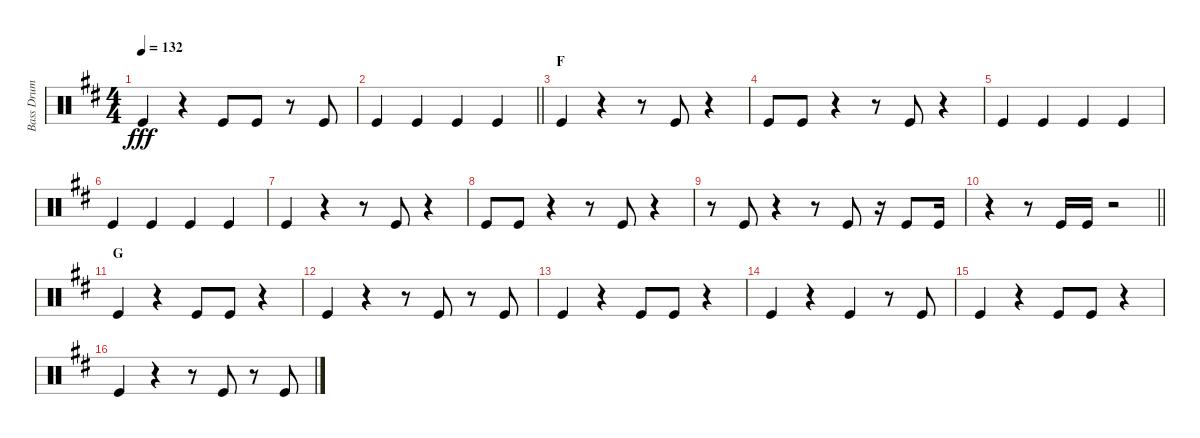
\track ("Bass Drum" "Bass Drum") {instrument percussion}
\staff {score}
\articulation defaults
\ts (4 4)
\tempo 132
\clef neutral
\ks d "Kick (hit)".4{dy fff}
r.4 "Kick (hit)".8 "Kick (hit)".8 r.8 "Kick (hit)".8 |
\barLineRight lightlight "Kick (hit)".4 "Kick (hit)".4 "Kick (hit)".4 "Kick (hit)".4
|
\section ("" "F")
"Kick (hit)".4 r.4 r.8 "Kick (hit)".8 r.4 |
"Kick (hit)".8 "Kick (hit)".8 r.4 r.8 "Kick (hit)".8 r.4 |
"Kick (hit)".4 "Kick (hit)".4 "Kick (hit)".4 "Kick (hit)".4 |
"Kick (hit)".4 "Kick (hit)".4 "Kick (hit)".4 "Kick (hit)".4 |
"Kick (hit)".4 r.4 r.8 "Kick (hit)".8 r.4 |
"Kick (hit)".8 "Kick (hit)".8 r.4 r.8 "Kick (hit)".8 r.4 |
r.8 "Kick (hit)".8 r.4 r.8 "Kick (hit)".8 r.16 "Kick (hit)".8 "Kick (hit)".16 |
\barLineRight lightlight
r.4 r.8 "Kick (hit)".16 "Kick (hit)".16 r.2 |
\section ("" "G")
"Kick (hit)".4 r.4 "Kick (hit)".8 "Kick (hit)".8 r.4 |
"Kick (hit)".4 r.4 r.8 "Kick (hit)".8 r.8 "Kick (hit)".8 |
"Kick (hit)".4 r.4 "Kick (hit)".8 "Kick (hit)".8 r.4 |
"Kick (hit)".4 r.4 "Kick (hit)".4 r.8 "Kick (hit)".8 |
"Kick (hit)".4 r.4 "Kick (hit)".8 "Kick (hit)".8 r.4 |
"Kick (hit)".4 r.4 r.8 "Kick (hit)".8 r.8 "Kick (hit)".8
